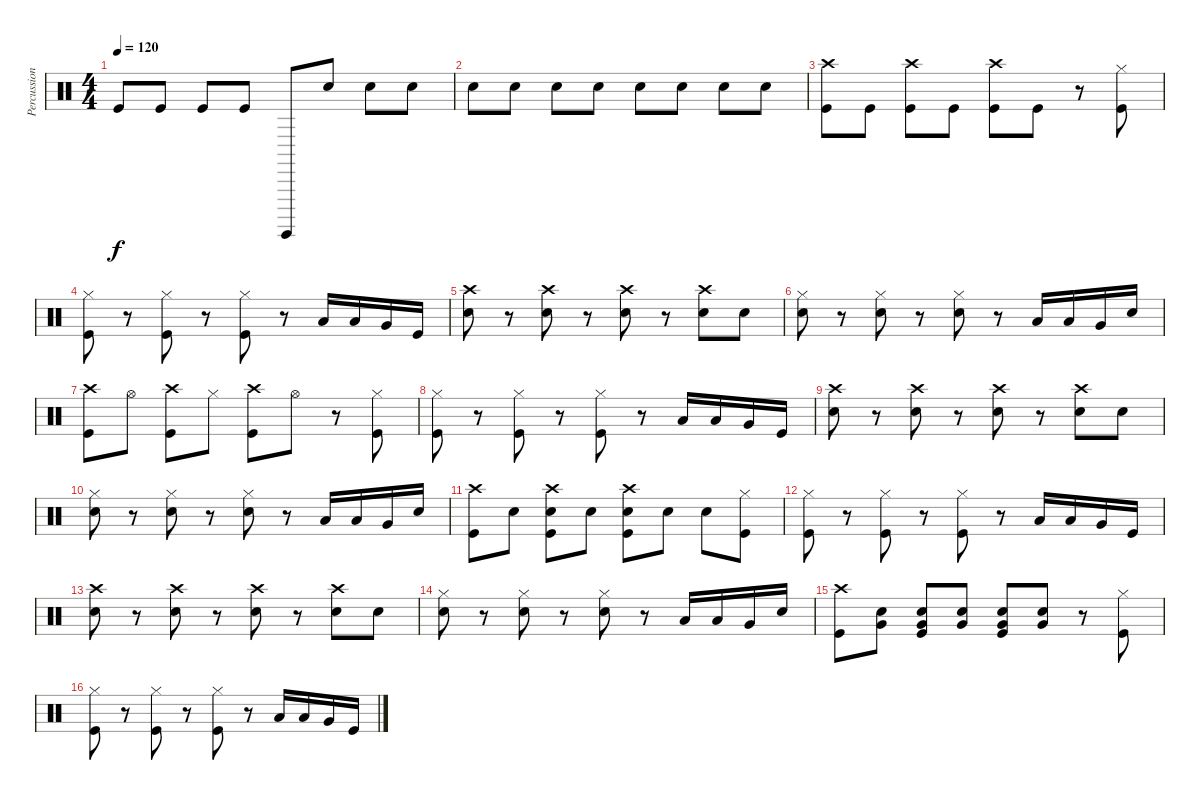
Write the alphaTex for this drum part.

\track ("Percussion" "Percussion") {instrument percussion}
\staff {score}
\articulation defaults
\ts (4 4)
\tempo 120
\clef neutral
\ks c "Kick (hit)".8{dy f} "Kick (hit)".8 "Kick (hit)".8 "Kick (hit)".8 "Surdo (hit)".8{volume 0} "Electric Snare (hit)".8{volume 13} "Electric Snare (hit)".8 "Electric Snare (hit)".8
|
"Electric Snare (hit)".8 "Electric Snare (hit)".8 "Electric Snare (hit)".8 "Electric Snare (hit)".8 "Electric Snare (hit)".8 "Electric Snare (hit)".8 "Electric Snare (hit)".8 "Electric Snare (hit)".8 |
("Crash high (hit)" "Kick (hit)").8 "Kick (hit)".8 ("Crash high (hit)" "Kick (hit)").8 "Kick (hit)".8 ("Crash high (hit)" "Kick (hit)").8 "Kick (hit)".8 r.8 ("Hi-Hat (closed)" "Kick (hit)").8 |
("Hi-Hat (closed)" "Kick (hit)").8 r.8 ("Hi-Hat (closed)" "Kick (hit)").8 r.8 ("Hi-Hat (closed)" "Kick (hit)").8 r.8 "Low Tom (hit)".16 "Low Tom (hit)".16 "Very Low Tom (hit)".16 "Kick (hit)".16 |
("Crash high (hit)" "Electric Snare (hit)").8 r.8 ("Crash high (hit)" "Electric Snare (hit)").8 r.8 ("Crash high (hit)" "Electric Snare (hit)").8 r.8 ("Crash high (hit)" "Electric Snare (hit)").8 "Electric Snare (hit)".8 |
("Hi-Hat (closed)" "Electric Snare (hit)").8 r.8 ("Hi-Hat (closed)" "Electric Snare (hit)").8 r.8 ("Hi-Hat (closed)" "Electric Snare (hit)").8 r.8 "Low Tom (hit)".16 "Low Tom (hit)".16 "Very Low Tom (hit)".16 "Electric Snare (hit)".16 |
("Crash high (hit)" "Kick (hit)").8 "Hi-Hat (open)".8 ("Crash high (hit)" "Kick (hit)").8 "Hi-Hat (closed)".8 ("Crash high (hit)" "Kick (hit)").8 "Hi-Hat (open)".8 r.8 ("Hi-Hat (closed)" "Kick (hit)").8 |
("Hi-Hat (closed)" "Kick (hit)").8 r.8 ("Hi-Hat (closed)" "Kick (hit)").8 r.8 ("Hi-Hat (closed)" "Kick (hit)").8 r.8 "Low Tom (hit)".16 "Low Tom (hit)".16 "Very Low Tom (hit)".16 "Kick (hit)".16 |
("Crash high (hit)" "Electric Snare (hit)").8 r.8 ("Crash high (hit)" "Electric Snare (hit)").8 r.8 ("Crash high (hit)" "Electric Snare (hit)").8 r.8 ("Crash high (hit)" "Electric Snare (hit)").8 "Electric Snare (hit)".8 |
("Hi-Hat (closed)" "Electric Snare (hit)").8 r.8 ("Hi-Hat (closed)" "Electric Snare (hit)").8 r.8 ("Hi-Hat (closed)" "Electric Snare (hit)").8 r.8 "Low Tom (hit)".16 "Low Tom (hit)".16 "Very Low Tom (hit)".16 "Electric Snare (hit)".16 |
("Crash high (hit)" "Kick (hit)").8 "Electric Snare (hit)".8 ("Crash high (hit)" "Electric Snare (hit)" "Kick (hit)").8 "Electric Snare (hit)".8 ("Crash high (hit)" "Electric Snare (hit)" "Kick (hit)").8 "Electric Snare (hit)".8 "Electric Snare (hit)".8 ("Hi-Hat (closed)" "Kick (hit)").8 |
("Hi-Hat (closed)" "Kick (hit)").8 r.8 ("Hi-Hat (closed)" "Kick (hit)").8 r.8 ("Hi-Hat (closed)" "Kick (hit)").8 r.8 "Low Tom (hit)".16 "Low Tom (hit)".16 "Very Low Tom (hit)".16 "Kick (hit)".16 |
("Crash high (hit)" "Electric Snare (hit)").8 r.8 ("Crash high (hit)" "Electric Snare (hit)").8 r.8 ("Crash high (hit)" "Electric Snare (hit)").8 r.8 ("Crash high (hit)" "Electric Snare (hit)").8 "Electric Snare (hit)".8 |
("Hi-Hat (closed)" "Electric Snare (hit)").8 r.8 ("Hi-Hat (closed)" "Electric Snare (hit)").8 r.8 ("Hi-Hat (closed)" "Electric Snare (hit)").8 r.8 "Low Tom (hit)".16 "Low Tom (hit)".16 "Very Low Tom (hit)".16 "Electric Snare (hit)".16 |
("Crash high (hit)" "Kick (hit)").8 ("Very Low Tom (hit)" "Electric Snare (hit)").8 ("Very Low Tom (hit)" "Electric Snare (hit)" "Kick (hit)").8 ("Very Low Tom (hit)" "Electric Snare (hit)").8 ("Very Low Tom (hit)" "Electric Snare (hit)" "Kick (hit)").8 ("Very Low Tom (hit)" "Electric Snare (hit)").8 r.8 ("Hi-Hat (closed)" "Kick (hit)").8 |
("Hi-Hat (closed)" "Kick (hit)").8 r.8 ("Hi-Hat (closed)" "Kick (hit)").8 r.8 ("Hi-Hat (closed)" "Kick (hit)").8 r.8 "Low Tom (hit)".16 "Low Tom (hit)".16 "Very Low Tom (hit)".16 "Kick (hit)".16
